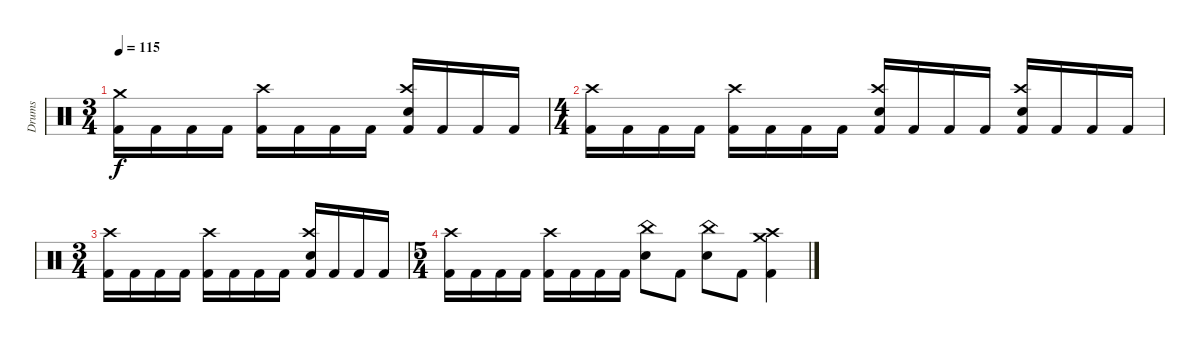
\track ("Drums" "Drums") {instrument percussion}
\staff {score}
\articulation defaults
\ts (3 4)
\tempo 115
\clef neutral
\ks c
("Crash medium (hit)" "Kick (hit) 2").16{dy f} "Kick (hit) 2".16 "Kick (hit) 2".16 "Kick (hit) 2".16 ("Crash high (hit)" "Kick (hit) 2").16 "Kick (hit) 2".16 "Kick (hit) 2".16 "Kick (hit) 2".16 ("Crash high (hit)" "Snare (hit) 2" "Kick (hit) 2").16 "Kick (hit) 2".16 "Kick (hit) 2".16 "Kick (hit) 2".16 |
\ts (4 4)
("Crash high (hit)" "Kick (hit) 2").16 "Kick (hit) 2".16 "Kick (hit) 2".16 "Kick (hit) 2".16 ("Crash high (hit)" "Kick (hit) 2").16 "Kick (hit) 2".16 "Kick (hit) 2".16 "Kick (hit) 2".16 ("Crash high (hit)" "Snare (hit) 2" "Kick (hit) 2").16 "Kick (hit) 2".16 "Kick (hit) 2".16 "Kick (hit) 2".16 ("Crash high (hit)" "Snare (hit) 2" "Kick (hit) 2").16 "Kick (hit) 2".16 "Kick (hit) 2".16 "Kick (hit) 2".16 |
\ts (3 4)
("Crash high (hit)" "Kick (hit) 2").16 "Kick (hit) 2".16 "Kick (hit) 2".16 "Kick (hit) 2".16 ("Crash high (hit)" "Kick (hit) 2").16 "Kick (hit) 2".16 "Kick (hit) 2".16 "Kick (hit) 2".16 ("Crash high (hit)" "Snare (hit) 2" "Kick (hit) 2").16 "Kick (hit) 2".16 "Kick (hit) 2".16 "Kick (hit) 2".16 |
\ts (5 4)
("Crash high (hit)" "Kick (hit) 2").16 "Kick (hit) 2".16 "Kick (hit) 2".16 "Kick (hit) 2".16 ("Crash high (hit)" "Kick (hit) 2").16 "Kick (hit) 2".16 "Kick (hit) 2".16 "Kick (hit) 2".16 ("China (hit)" "Snare (hit) 2").8 "Kick (hit) 2".8 ("China (hit)" "Snare (hit) 2").8 "Kick (hit) 2".8 ("Crash medium (hit)" "Crash high (hit)" "Kick (hit) 2").4
